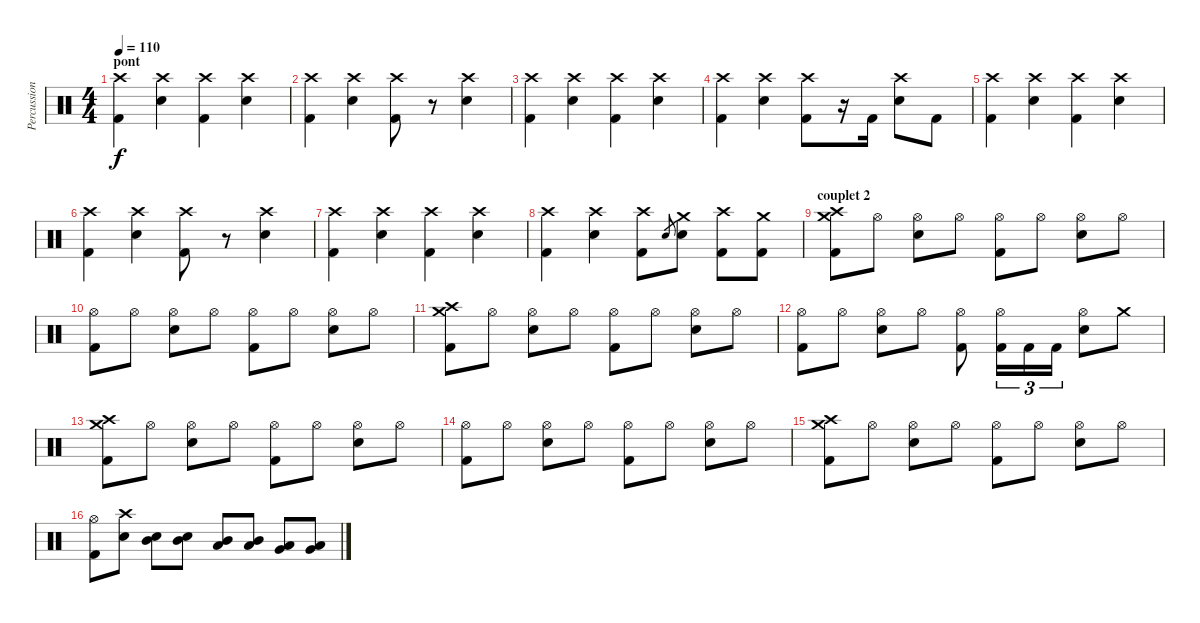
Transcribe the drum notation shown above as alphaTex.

\track ("Percussions" "Percussion") {instrument percussion}
\staff {score}
\articulation defaults
\ts (4 4)
\section ("" "pont")
\tempo 110
\clef neutral
\ks c
("Crash high (hit)" "Kick (hit) 2").4{dy f} ("Crash high (hit)" "Electric Snare (hit)").4 ("Crash high (hit)" "Kick (hit) 2").4 ("Crash high (hit)" "Electric Snare (hit)").4 |
("Crash high (hit)" "Kick (hit) 2").4 ("Crash high (hit)" "Electric Snare (hit)").4 ("Crash high (hit)" "Kick (hit) 2").8 r.8 ("Crash high (hit)" "Electric Snare (hit)").4 |
("Crash high (hit)" "Kick (hit) 2").4 ("Crash high (hit)" "Electric Snare (hit)").4 ("Crash high (hit)" "Kick (hit) 2").4 ("Crash high (hit)" "Electric Snare (hit)").4 |
("Crash high (hit)" "Kick (hit) 2").4 ("Crash high (hit)" "Electric Snare (hit)").4 ("Crash high (hit)" "Kick (hit) 2").8 r.16 "Kick (hit) 2".16 ("Crash high (hit)" "Electric Snare (hit)").8 "Kick (hit) 2".8 |
("Crash high (hit)" "Kick (hit) 2").4 ("Crash high (hit)" "Electric Snare (hit)").4 ("Crash high (hit)" "Kick (hit) 2").4 ("Crash high (hit)" "Electric Snare (hit)").4 |
("Crash high (hit)" "Kick (hit) 2").4 ("Crash high (hit)" "Electric Snare (hit)").4 ("Crash high (hit)" "Kick (hit) 2").8 r.8 ("Crash high (hit)" "Electric Snare (hit)").4 |
("Crash high (hit)" "Kick (hit) 2").4 ("Crash high (hit)" "Electric Snare (hit)").4 ("Crash high (hit)" "Kick (hit) 2").4 ("Crash high (hit)" "Electric Snare (hit)").4 |
("Crash high (hit)" "Kick (hit) 2").4 ("Crash high (hit)" "Electric Snare (hit)").4 ("Crash high (hit)" "Kick (hit) 2").8 "Electric Snare (hit)".8{gr} ("Crash medium (hit)" "Electric Snare (hit)").8 ("Crash high (hit)" "Kick (hit) 2").8 ("Crash medium (hit)" "Kick (hit) 2").8 |
\section ("" "couplet 2")
("Crash high (hit)" "Crash medium (hit)" "Kick (hit) 2").8 "Hi-Hat (open)".8 ("Hi-Hat (open)" "Electric Snare (hit)").8 "Hi-Hat (open)".8 ("Hi-Hat (open)" "Kick (hit) 2").8 "Hi-Hat (open)".8 ("Hi-Hat (open)" "Electric Snare (hit)").8 "Hi-Hat (open)".8 |
("Hi-Hat (open)" "Kick (hit) 2").8 "Hi-Hat (open)".8 ("Hi-Hat (open)" "Electric Snare (hit)").8 "Hi-Hat (open)".8 ("Hi-Hat (open)" "Kick (hit) 2").8 "Hi-Hat (open)".8 ("Hi-Hat (open)" "Electric Snare (hit)").8 "Hi-Hat (open)".8 |
("Crash high (hit)" "Crash medium (hit)" "Kick (hit) 2").8 "Hi-Hat (open)".8 ("Hi-Hat (open)" "Electric Snare (hit)").8 "Hi-Hat (open)".8 ("Hi-Hat (open)" "Kick (hit) 2").8 "Hi-Hat (open)".8 ("Hi-Hat (open)" "Electric Snare (hit)").8 "Hi-Hat (open)".8 |
("Hi-Hat (open)" "Kick (hit) 2").8 "Hi-Hat (open)".8 ("Hi-Hat (open)" "Electric Snare (hit)").8 "Hi-Hat (open)".8 ("Hi-Hat (open)" "Kick (hit) 2").8 ("Hi-Hat (open)" "Kick (hit) 2").16{tu (3 2)} "Kick (hit) 2".16{tu (3 2)} "Kick (hit) 2".16{tu (3 2)} ("Hi-Hat (open)" "Electric Snare (hit)").8 "Crash medium (hit)".8 |
("Crash high (hit)" "Crash medium (hit)" "Kick (hit) 2").8 "Hi-Hat (open)".8 ("Hi-Hat (open)" "Electric Snare (hit)").8 "Hi-Hat (open)".8 ("Hi-Hat (open)" "Kick (hit) 2").8 "Hi-Hat (open)".8 ("Hi-Hat (open)" "Electric Snare (hit)").8 "Hi-Hat (open)".8 |
("Hi-Hat (open)" "Kick (hit) 2").8 "Hi-Hat (open)".8 ("Hi-Hat (open)" "Electric Snare (hit)").8 "Hi-Hat (open)".8 ("Hi-Hat (open)" "Kick (hit) 2").8 "Hi-Hat (open)".8 ("Hi-Hat (open)" "Electric Snare (hit)").8 "Hi-Hat (open)".8 |
("Crash high (hit)" "Crash medium (hit)" "Kick (hit) 2").8 "Hi-Hat (open)".8 ("Hi-Hat (open)" "Electric Snare (hit)").8 "Hi-Hat (open)".8 ("Hi-Hat (open)" "Kick (hit) 2").8 "Hi-Hat (open)".8 ("Hi-Hat (open)" "Electric Snare (hit)").8 "Hi-Hat (open)".8 |
("Hi-Hat (open)" "Kick (hit) 2").8 ("Crash high (hit)" "Electric Snare (hit)").8 ("Mid Tom (hit)" "Electric Snare (hit)").8 ("Mid Tom (hit)" "Electric Snare (hit)").8 ("Mid Tom (hit)" "Low Tom (hit)").8 ("Mid Tom (hit)" "Low Tom (hit)").8 ("Low Tom (hit)" "Very Low Tom (hit)").8 ("Low Tom (hit)" "Very Low Tom (hit)").8
